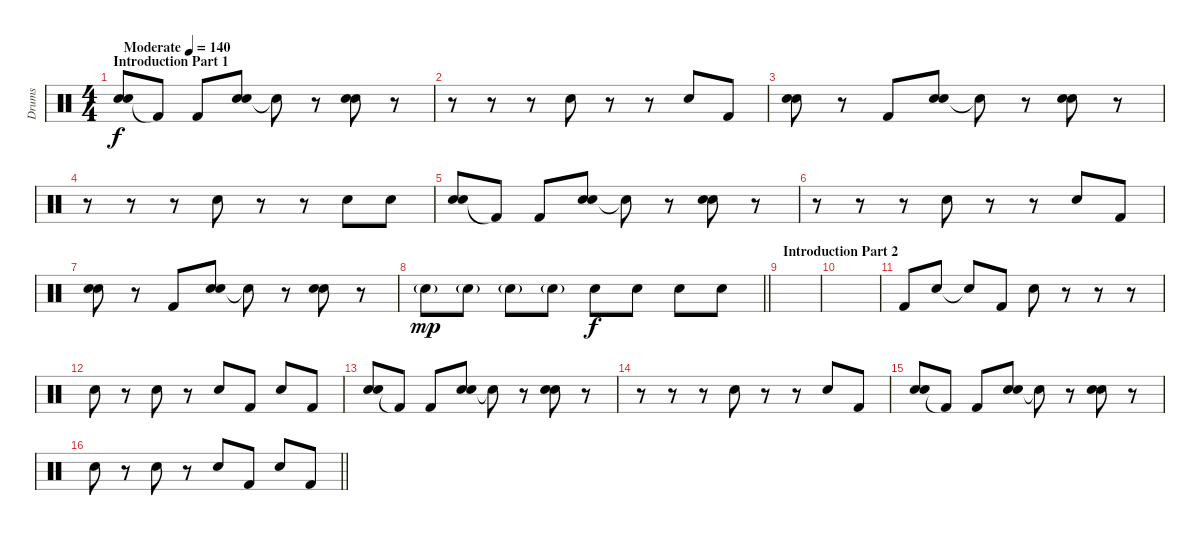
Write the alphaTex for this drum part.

\track ("Drums" "Drums") {instrument percussion}
\staff {score}
\articulation defaults
\ts (4 4)
\section ("" "Introduction Part 1")
\tempo (140 "Moderate")
\clef neutral
\ks c
("Snare (hit) 2" "Hand Clap (hit)").8{dy f} "Kick (hit) 2"{t}.8 "Kick (hit) 2".8 ("Snare (hit) 2" "Hand Clap (hit)").8 "Snare (hit)"{t}.8 r.8 ("Snare (hit) 2" "Hand Clap (hit)").8 r.8 |
r.8 r.8 r.8 "Hand Clap (hit)".8 r.8 r.8 "Hand Clap (hit)".8 "Kick (hit) 2".8 |
("Snare (hit) 2" "Hand Clap (hit)").8 r.8 "Kick (hit) 2".8 ("Snare (hit) 2" "Hand Clap (hit)").8 "Snare (hit)"{t}.8 r.8 ("Snare (hit) 2" "Hand Clap (hit)").8 r.8 |
r.8 r.8 r.8 "Hand Clap (hit)".8 r.8 r.8 "Hand Clap (hit)".8 "Hand Clap (hit)".8 |
("Snare (hit) 2" "Hand Clap (hit)").8 "Kick (hit) 2"{t}.8 "Kick (hit) 2".8 ("Snare (hit) 2" "Hand Clap (hit)").8 "Snare (hit)"{t}.8 r.8 ("Snare (hit) 2" "Hand Clap (hit)").8 r.8 |
r.8 r.8 r.8 "Hand Clap (hit)".8 r.8 r.8 "Hand Clap (hit)".8 "Kick (hit) 2".8 |
("Snare (hit) 2" "Hand Clap (hit)").8 r.8 "Kick (hit) 2".8 ("Snare (hit) 2" "Hand Clap (hit)").8 "Snare (hit)"{t}.8 r.8 ("Snare (hit) 2" "Hand Clap (hit)").8 r.8 |
\barLineRight lightlight "Snare (hit) 2"{g}.8{dy mp} "Snare (hit) 2"{g}.8 "Snare (hit) 2"{g}.8 "Snare (hit) 2"{g}.8 "Snare (hit) 2".8{dy f} "Snare (hit) 2".8 "Snare (hit) 2".8 "Snare (hit) 2".8
|
\section ("" "Introduction Part 2")
|
|
"Kick (hit) 2".8 "Snare (hit) 2".8 "Snare (hit)"{t}.8 "Kick (hit) 2".8 "Snare (hit) 2".8 r.8 r.8 r.8 |
"Snare (hit) 2".8 r.8 "Snare (hit) 2".8 r.8 "Snare (hit) 2".8 "Kick (hit) 2".8 "Snare (hit) 2".8 "Kick (hit) 2".8 |
("Snare (hit) 2" "Hand Clap (hit)").8 "Kick (hit) 2"{t}.8 "Kick (hit) 2".8 ("Snare (hit) 2" "Hand Clap (hit)").8 "Snare (hit)"{t}.8 r.8 ("Snare (hit) 2" "Hand Clap (hit)").8 r.8 |
r.8 r.8 r.8 "Snare (hit) 2".8 r.8 r.8 "Snare (hit) 2".8 "Kick (hit) 2".8 |
("Snare (hit) 2" "Hand Clap (hit)").8 "Kick (hit) 2"{t}.8 "Kick (hit) 2".8 ("Snare (hit) 2" "Hand Clap (hit)").8 "Snare (hit)"{t}.8 r.8 ("Snare (hit) 2" "Hand Clap (hit)").8 r.8 |
\barLineRight lightlight "Snare (hit) 2".8
r.8 "Snare (hit) 2".8 r.8 "Snare (hit) 2".8 "Kick (hit) 2".8 "Snare (hit) 2".8 "Kick (hit) 2".8
